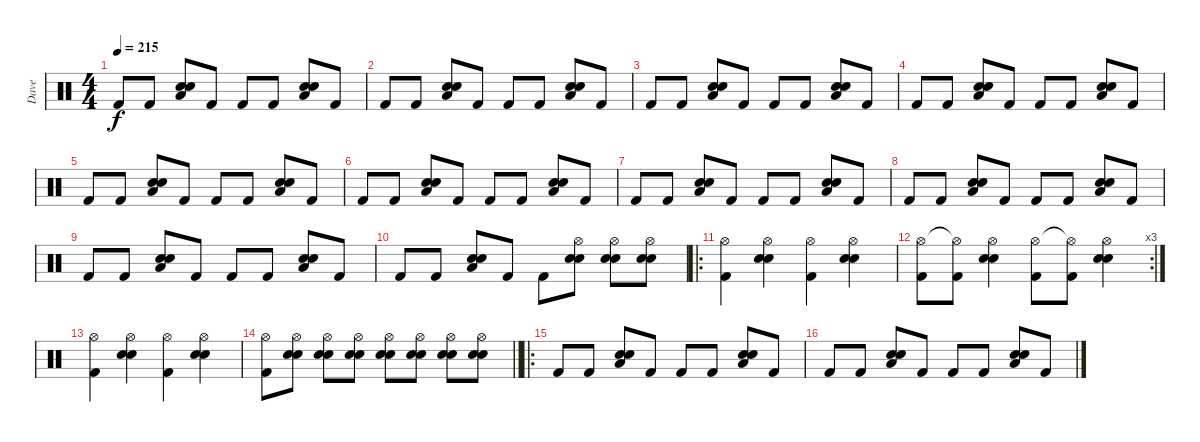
\track ("Dave" "Dave") {instrument percussion}
\staff {score}
\articulation defaults
\ts (4 4)
\tempo 215
\clef neutral
\ks c "Kick (hit) 2".8{dy f} "Kick (hit) 2".8
("Low Floor Tom (hit)" "Electric Snare (hit)" "Electric Snare (hit)").8 "Kick (hit) 2".8 "Kick (hit) 2".8 "Kick (hit) 2".8 ("Low Floor Tom (hit)" "Electric Snare (hit)" "Electric Snare (hit)").8 "Kick (hit) 2".8 |
"Kick (hit) 2".8 "Kick (hit) 2".8 ("Low Floor Tom (hit)" "Electric Snare (hit)" "Electric Snare (hit)").8 "Kick (hit) 2".8 "Kick (hit) 2".8 "Kick (hit) 2".8 ("Low Floor Tom (hit)" "Electric Snare (hit)" "Electric Snare (hit)").8 "Kick (hit) 2".8 |
"Kick (hit) 2".8 "Kick (hit) 2".8 ("Low Floor Tom (hit)" "Electric Snare (hit)" "Electric Snare (hit)").8 "Kick (hit) 2".8 "Kick (hit) 2".8 "Kick (hit) 2".8 ("Low Floor Tom (hit)" "Electric Snare (hit)" "Electric Snare (hit)").8 "Kick (hit) 2".8 |
"Kick (hit) 2".8 "Kick (hit) 2".8 ("Low Floor Tom (hit)" "Electric Snare (hit)" "Electric Snare (hit)").8 "Kick (hit) 2".8 "Kick (hit) 2".8 "Kick (hit) 2".8 ("Low Floor Tom (hit)" "Electric Snare (hit)" "Electric Snare (hit)").8 "Kick (hit) 2".8 |
"Kick (hit) 2".8 "Kick (hit) 2".8 ("Low Floor Tom (hit)" "Electric Snare (hit)" "Electric Snare (hit)").8 "Kick (hit) 2".8 "Kick (hit) 2".8 "Kick (hit) 2".8 ("Low Floor Tom (hit)" "Electric Snare (hit)" "Electric Snare (hit)").8 "Kick (hit) 2".8 |
"Kick (hit) 2".8 "Kick (hit) 2".8 ("Low Floor Tom (hit)" "Electric Snare (hit)" "Electric Snare (hit)").8 "Kick (hit) 2".8 "Kick (hit) 2".8 "Kick (hit) 2".8 ("Low Floor Tom (hit)" "Electric Snare (hit)" "Electric Snare (hit)").8 "Kick (hit) 2".8 |
"Kick (hit) 2".8 "Kick (hit) 2".8 ("Low Floor Tom (hit)" "Electric Snare (hit)" "Electric Snare (hit)").8 "Kick (hit) 2".8 "Kick (hit) 2".8 "Kick (hit) 2".8 ("Low Floor Tom (hit)" "Electric Snare (hit)" "Electric Snare (hit)").8 "Kick (hit) 2".8 |
"Kick (hit) 2".8 "Kick (hit) 2".8 ("Low Floor Tom (hit)" "Electric Snare (hit)" "Electric Snare (hit)").8 "Kick (hit) 2".8 "Kick (hit) 2".8 "Kick (hit) 2".8 ("Low Floor Tom (hit)" "Electric Snare (hit)" "Electric Snare (hit)").8 "Kick (hit) 2".8 |
"Kick (hit) 2".8 "Kick (hit) 2".8 ("Low Floor Tom (hit)" "Electric Snare (hit)" "Electric Snare (hit)").8 "Kick (hit) 2".8 "Kick (hit) 2".8 "Kick (hit) 2".8 ("Low Floor Tom (hit)" "Electric Snare (hit)" "Electric Snare (hit)").8 "Kick (hit) 2".8 |
"Kick (hit) 2".8 "Kick (hit) 2".8 ("Low Floor Tom (hit)" "Electric Snare (hit)" "Electric Snare (hit)").8 "Kick (hit) 2".8 "Kick (hit) 2".8 ("Hi-Hat (open)" "Electric Snare (hit)" "Electric Snare (hit)").8 ("Hi-Hat (open)" "Electric Snare (hit)" "Electric Snare (hit)").8 ("Hi-Hat (open)" "Electric Snare (hit)" "Electric Snare (hit)").8 |
\ro
("Hi-Hat (open)" "Kick (hit) 2").4 ("Hi-Hat (open)" "Electric Snare (hit)" "Electric Snare (hit)").4 ("Hi-Hat (open)" "Kick (hit) 2").4 ("Hi-Hat (open)" "Electric Snare (hit)" "Electric Snare (hit)").4 |
\rc 3
("Hi-Hat (open)" "Kick (hit) 2").8 ("Hi-Hat (open)"{t} "Kick (hit) 2").8 ("Hi-Hat (open)" "Electric Snare (hit)" "Electric Snare (hit)").4 ("Hi-Hat (open)" "Kick (hit) 2").8 ("Hi-Hat (open)"{t} "Kick (hit) 2").8 ("Hi-Hat (open)" "Electric Snare (hit)" "Electric Snare (hit)").4 |
("Hi-Hat (open)" "Kick (hit) 2").4 ("Hi-Hat (open)" "Electric Snare (hit)" "Electric Snare (hit)").4 ("Hi-Hat (open)" "Kick (hit) 2").4 ("Hi-Hat (open)" "Electric Snare (hit)" "Electric Snare (hit)").4 |
\barLineRight lightlight
("Hi-Hat (open)" "Kick (hit) 2").8 ("Hi-Hat (open)" "Electric Snare (hit)" "Electric Snare (hit)").8 ("Hi-Hat (open)" "Electric Snare (hit)" "Electric Snare (hit)").8 ("Hi-Hat (open)" "Electric Snare (hit)" "Electric Snare (hit)").8 ("Hi-Hat (open)" "Electric Snare (hit)" "Electric Snare (hit)").8 ("Hi-Hat (open)" "Electric Snare (hit)" "Electric Snare (hit)").8 ("Hi-Hat (open)" "Electric Snare (hit)" "Electric Snare (hit)").8 ("Hi-Hat (open)" "Electric Snare (hit)" "Electric Snare (hit)").8 |
\ro "Kick (hit) 2".8 "Kick (hit) 2".8
("Low Floor Tom (hit)" "Electric Snare (hit)" "Electric Snare (hit)").8 "Kick (hit) 2".8 "Kick (hit) 2".8 "Kick (hit) 2".8 ("Low Floor Tom (hit)" "Electric Snare (hit)" "Electric Snare (hit)").8 "Kick (hit) 2".8 |
"Kick (hit) 2".8 "Kick (hit) 2".8 ("Low Floor Tom (hit)" "Electric Snare (hit)" "Electric Snare (hit)").8 "Kick (hit) 2".8 "Kick (hit) 2".8 "Kick (hit) 2".8 ("Low Floor Tom (hit)" "Electric Snare (hit)" "Electric Snare (hit)").8 "Kick (hit) 2".8
